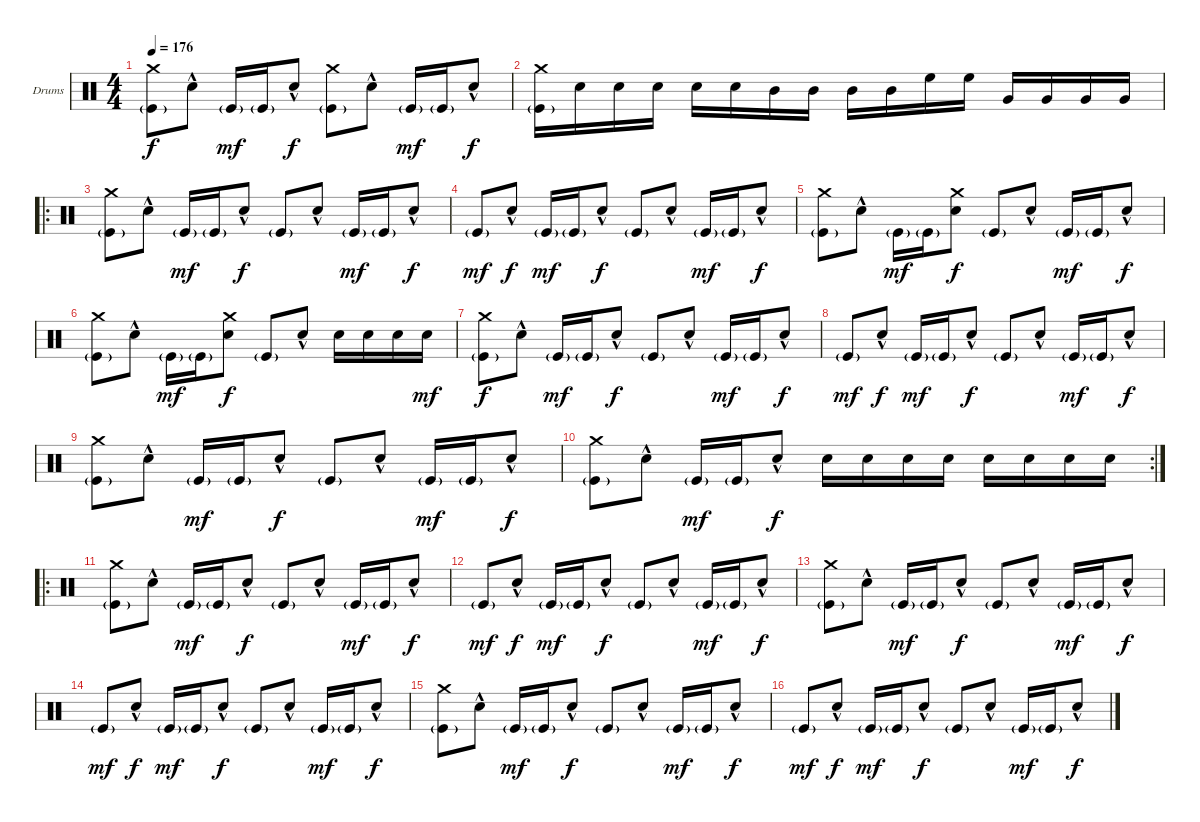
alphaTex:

\defaultSystemsLayout 4
\bracketExtendMode groupsimilarinstruments
\firstSystemTrackNameOrientation horizontal
\otherSystemsTrackNameOrientation horizontal
\track ("Drums" "Drums") {instrument percussion}
\staff {score}
\articulation defaults
\ts (4 4)
\tempo 176
\clef neutral
\ks c
("Crash medium (hit)" "Kick (hit)"{g}).8{dy f} "Snare (hit) 2"{hac}.8 "Kick (hit)"{g}.16{dy mf} "Kick (hit)"{g}.16 "Snare (hit) 2"{hac}.8{dy f} ("Crash medium (hit)" "Kick (hit)"{g}).8 "Snare (hit) 2"{hac}.8 "Kick (hit)"{g}.16{dy mf} "Kick (hit)"{g}.16 "Snare (hit) 2"{hac}.8{dy f} |
("Crash medium (hit)" "Kick (hit)"{g}).16 "Snare (hit) 2".16 "Snare (hit) 2".16 "Snare (hit) 2".16 "Snare (hit) 2".16 "Snare (hit) 2".16 "Mid Tom (hit)".16 "Mid Tom (hit)".16 "Mid Tom (hit)".16 "Mid Tom (hit)".16 "High Floor Tom (hit)".16 "High Floor Tom (hit)".16 "Very Low Tom (hit)".16 "Very Low Tom (hit)".16 "Very Low Tom (hit)".16 "Very Low Tom (hit)".16 |
\ro
("Crash medium (hit)" "Kick (hit)"{g}).8 "Snare (hit) 2"{hac}.8 "Kick (hit)"{g}.16{dy mf} "Kick (hit)"{g}.16 "Snare (hit) 2"{hac}.8{dy f} "Kick (hit)"{g}.8 "Snare (hit) 2"{hac}.8 "Kick (hit)"{g}.16{dy mf} "Kick (hit)"{g}.16 "Snare (hit) 2"{hac}.8{dy f} |
"Kick (hit)"{g}.8{dy mf} "Snare (hit) 2"{hac}.8{dy f} "Kick (hit)"{g}.16{dy mf} "Kick (hit)"{g}.16 "Snare (hit) 2"{hac}.8{dy f} "Kick (hit)"{g}.8 "Snare (hit) 2"{hac}.8 "Kick (hit)"{g}.16{dy mf} "Kick (hit)"{g}.16 "Snare (hit) 2"{hac}.8{dy f} |
("Crash medium (hit)" "Kick (hit)"{g}).8 "Snare (hit) 2"{hac}.8 "Kick (hit)"{g}.16{dy mf} "Kick (hit)"{g}.16 ("Crash medium (hit)" "Snare (hit) 2").8{dy f} "Kick (hit)"{g}.8 "Snare (hit) 2"{hac}.8 "Kick (hit)"{g}.16{dy mf} "Kick (hit)"{g}.16 "Snare (hit) 2"{hac}.8{dy f} |
("Crash medium (hit)" "Kick (hit)"{g}).8 "Snare (hit) 2"{hac}.8 "Kick (hit)"{g}.16{dy mf} "Kick (hit)"{g}.16 ("Crash medium (hit)" "Snare (hit) 2").8{dy f} "Kick (hit)"{g}.8 "Snare (hit) 2"{hac}.8 "Snare (hit) 2".16 "Snare (hit) 2".16 "Snare (hit) 2".16 "Snare (hit) 2".16{dy mf} |
("Crash medium (hit)" "Kick (hit)"{g}).8{dy f} "Snare (hit) 2"{hac}.8 "Kick (hit)"{g}.16{dy mf} "Kick (hit)"{g}.16 "Snare (hit) 2"{hac}.8{dy f} "Kick (hit)"{g}.8 "Snare (hit) 2"{hac}.8 "Kick (hit)"{g}.16{dy mf} "Kick (hit)"{g}.16 "Snare (hit) 2"{hac}.8{dy f} |
"Kick (hit)"{g}.8{dy mf} "Snare (hit) 2"{hac}.8{dy f} "Kick (hit)"{g}.16{dy mf} "Kick (hit)"{g}.16 "Snare (hit) 2"{hac}.8{dy f} "Kick (hit)"{g}.8 "Snare (hit) 2"{hac}.8 "Kick (hit)"{g}.16{dy mf} "Kick (hit)"{g}.16 "Snare (hit) 2"{hac}.8{dy f} |
("Crash medium (hit)" "Kick (hit)"{g}).8 "Snare (hit) 2"{hac}.8 "Kick (hit)"{g}.16{dy mf} "Kick (hit)"{g}.16 "Snare (hit) 2"{hac}.8{dy f} "Kick (hit)"{g}.8 "Snare (hit) 2"{hac}.8 "Kick (hit)"{g}.16{dy mf} "Kick (hit)"{g}.16 "Snare (hit) 2"{hac}.8{dy f} |
\rc 2
("Crash medium (hit)" "Kick (hit)"{g}).8 "Snare (hit) 2"{hac}.8 "Kick (hit)"{g}.16{dy mf} "Kick (hit)"{g}.16 "Snare (hit) 2"{hac}.8{dy f} "Snare (hit) 2".16 "Snare (hit) 2".16 "Snare (hit) 2".16 "Snare (hit) 2".16 "Snare (hit) 2".16 "Snare (hit) 2".16 "Snare (hit) 2".16 "Snare (hit) 2".16 |
\ro
("Crash medium (hit)" "Kick (hit)"{g}).8 "Snare (hit) 2"{hac}.8 "Kick (hit)"{g}.16{dy mf} "Kick (hit)"{g}.16 "Snare (hit) 2"{hac}.8{dy f} "Kick (hit)"{g}.8 "Snare (hit) 2"{hac}.8 "Kick (hit)"{g}.16{dy mf} "Kick (hit)"{g}.16 "Snare (hit) 2"{hac}.8{dy f} |
"Kick (hit)"{g}.8{dy mf} "Snare (hit) 2"{hac}.8{dy f} "Kick (hit)"{g}.16{dy mf} "Kick (hit)"{g}.16 "Snare (hit) 2"{hac}.8{dy f} "Kick (hit)"{g}.8 "Snare (hit) 2"{hac}.8 "Kick (hit)"{g}.16{dy mf} "Kick (hit)"{g}.16 "Snare (hit) 2"{hac}.8{dy f} |
("Crash medium (hit)" "Kick (hit)"{g}).8 "Snare (hit) 2"{hac}.8 "Kick (hit)"{g}.16{dy mf} "Kick (hit)"{g}.16 "Snare (hit) 2"{hac}.8{dy f} "Kick (hit)"{g}.8 "Snare (hit) 2"{hac}.8 "Kick (hit)"{g}.16{dy mf} "Kick (hit)"{g}.16 "Snare (hit) 2"{hac}.8{dy f} |
"Kick (hit)"{g}.8{dy mf} "Snare (hit) 2"{hac}.8{dy f} "Kick (hit)"{g}.16{dy mf} "Kick (hit)"{g}.16 "Snare (hit) 2"{hac}.8{dy f} "Kick (hit)"{g}.8 "Snare (hit) 2"{hac}.8 "Kick (hit)"{g}.16{dy mf} "Kick (hit)"{g}.16 "Snare (hit) 2"{hac}.8{dy f} |
("Crash medium (hit)" "Kick (hit)"{g}).8 "Snare (hit) 2"{hac}.8 "Kick (hit)"{g}.16{dy mf} "Kick (hit)"{g}.16 "Snare (hit) 2"{hac}.8{dy f} "Kick (hit)"{g}.8 "Snare (hit) 2"{hac}.8 "Kick (hit)"{g}.16{dy mf} "Kick (hit)"{g}.16 "Snare (hit) 2"{hac}.8{dy f} |
"Kick (hit)"{g}.8{dy mf} "Snare (hit) 2"{hac}.8{dy f} "Kick (hit)"{g}.16{dy mf} "Kick (hit)"{g}.16 "Snare (hit) 2"{hac}.8{dy f} "Kick (hit)"{g}.8 "Snare (hit) 2"{hac}.8 "Kick (hit)"{g}.16{dy mf} "Kick (hit)"{g}.16 "Snare (hit) 2"{hac}.8{dy f}
